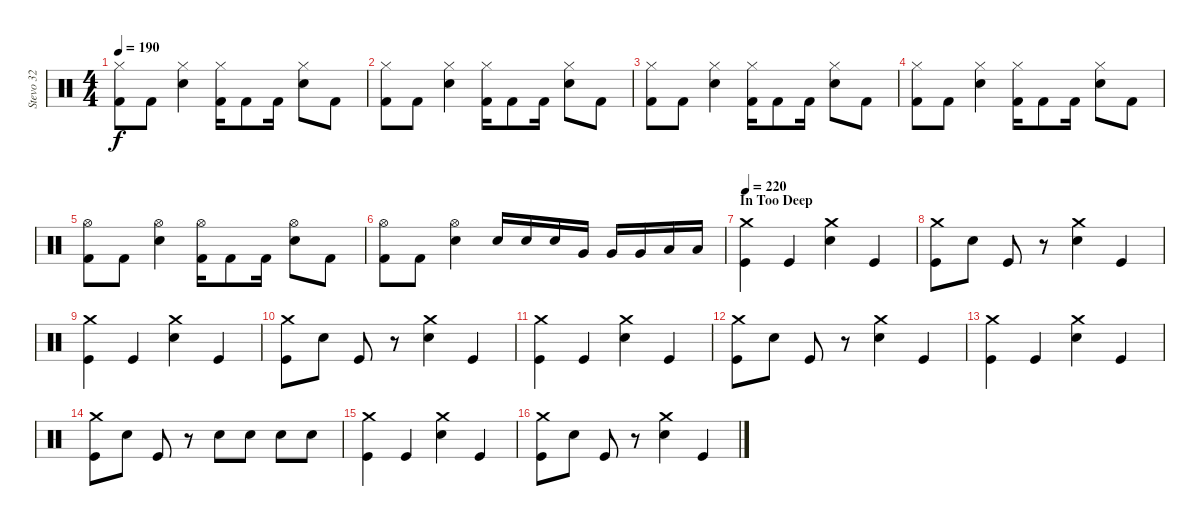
\track ("Stevo 32" "Stevo 32") {instrument percussion}
\staff {score}
\articulation defaults
\ts (4 4)
\tempo 190
\clef neutral
\ks c
("Hi-Hat (closed)" "Kick (hit) 2").8{dy f} "Kick (hit) 2".8 ("Hi-Hat (closed)" "Electric Snare (hit)").4 ("Hi-Hat (closed)" "Kick (hit) 2").16 "Kick (hit) 2".8 "Kick (hit) 2".16 ("Hi-Hat (closed)" "Electric Snare (hit)").8 "Kick (hit) 2".8 |
("Hi-Hat (closed)" "Kick (hit) 2").8 "Kick (hit) 2".8 ("Hi-Hat (closed)" "Electric Snare (hit)").4 ("Hi-Hat (closed)" "Kick (hit) 2").16 "Kick (hit) 2".8 "Kick (hit) 2".16 ("Hi-Hat (closed)" "Electric Snare (hit)").8 "Kick (hit) 2".8 |
("Hi-Hat (closed)" "Kick (hit) 2").8 "Kick (hit) 2".8 ("Hi-Hat (closed)" "Electric Snare (hit)").4 ("Hi-Hat (closed)" "Kick (hit) 2").16 "Kick (hit) 2".8 "Kick (hit) 2".16 ("Hi-Hat (closed)" "Electric Snare (hit)").8 "Kick (hit) 2".8 |
("Hi-Hat (closed)" "Kick (hit) 2").8 "Kick (hit) 2".8 ("Hi-Hat (closed)" "Electric Snare (hit)").4 ("Hi-Hat (closed)" "Kick (hit) 2").16 "Kick (hit) 2".8 "Kick (hit) 2".16 ("Hi-Hat (closed)" "Electric Snare (hit)").8 "Kick (hit) 2".8 |
("Hi-Hat (open)" "Kick (hit) 2").8 "Kick (hit) 2".8 ("Hi-Hat (open)" "Electric Snare (hit)").4 ("Hi-Hat (open)" "Kick (hit) 2").16 "Kick (hit) 2".8 "Kick (hit) 2".16 ("Hi-Hat (open)" "Electric Snare (hit)").8 "Kick (hit) 2".8 |
("Hi-Hat (open)" "Kick (hit) 2").8 "Kick (hit) 2".8 ("Hi-Hat (open)" "Electric Snare (hit)").4 "Electric Snare (hit)".16 "Electric Snare (hit)".16 "Electric Snare (hit)".16 "Very Low Tom (hit)".16 "Very Low Tom (hit)".16 "Very Low Tom (hit)".16 "Low Floor Tom (hit)".16 "Low Floor Tom (hit)".16 |
\section ("" "In Too Deep")
\tempo 220
("Crash medium (hit)" "Kick (hit)").4 "Kick (hit)".4 ("Crash medium (hit)" "Electric Snare (hit)").4 "Kick (hit)".4 |
("Crash medium (hit)" "Kick (hit)").8 "Electric Snare (hit)".8 "Kick (hit)".8 r.8 ("Crash medium (hit)" "Electric Snare (hit)").4 "Kick (hit)".4 |
("Crash medium (hit)" "Kick (hit)").4 "Kick (hit)".4 ("Crash medium (hit)" "Electric Snare (hit)").4 "Kick (hit)".4 |
("Crash medium (hit)" "Kick (hit)").8 "Electric Snare (hit)".8 "Kick (hit)".8 r.8 ("Crash medium (hit)" "Electric Snare (hit)").4 "Kick (hit)".4 |
("Crash medium (hit)" "Kick (hit)").4 "Kick (hit)".4 ("Crash medium (hit)" "Electric Snare (hit)").4 "Kick (hit)".4 |
("Crash medium (hit)" "Kick (hit)").8 "Electric Snare (hit)".8 "Kick (hit)".8 r.8 ("Crash medium (hit)" "Electric Snare (hit)").4 "Kick (hit)".4 |
("Crash medium (hit)" "Kick (hit)").4 "Kick (hit)".4 ("Crash medium (hit)" "Electric Snare (hit)").4 "Kick (hit)".4 |
("Crash medium (hit)" "Kick (hit)").8 "Electric Snare (hit)".8 "Kick (hit)".8 r.8 "Electric Snare (hit)".8 "Electric Snare (hit)".8 "Electric Snare (hit)".8 "Electric Snare (hit)".8 |
("Crash medium (hit)" "Kick (hit)").4 "Kick (hit)".4 ("Crash medium (hit)" "Electric Snare (hit)").4 "Kick (hit)".4 |
("Crash medium (hit)" "Kick (hit)").8 "Electric Snare (hit)".8 "Kick (hit)".8 r.8 ("Crash medium (hit)" "Electric Snare (hit)").4 "Kick (hit)".4
